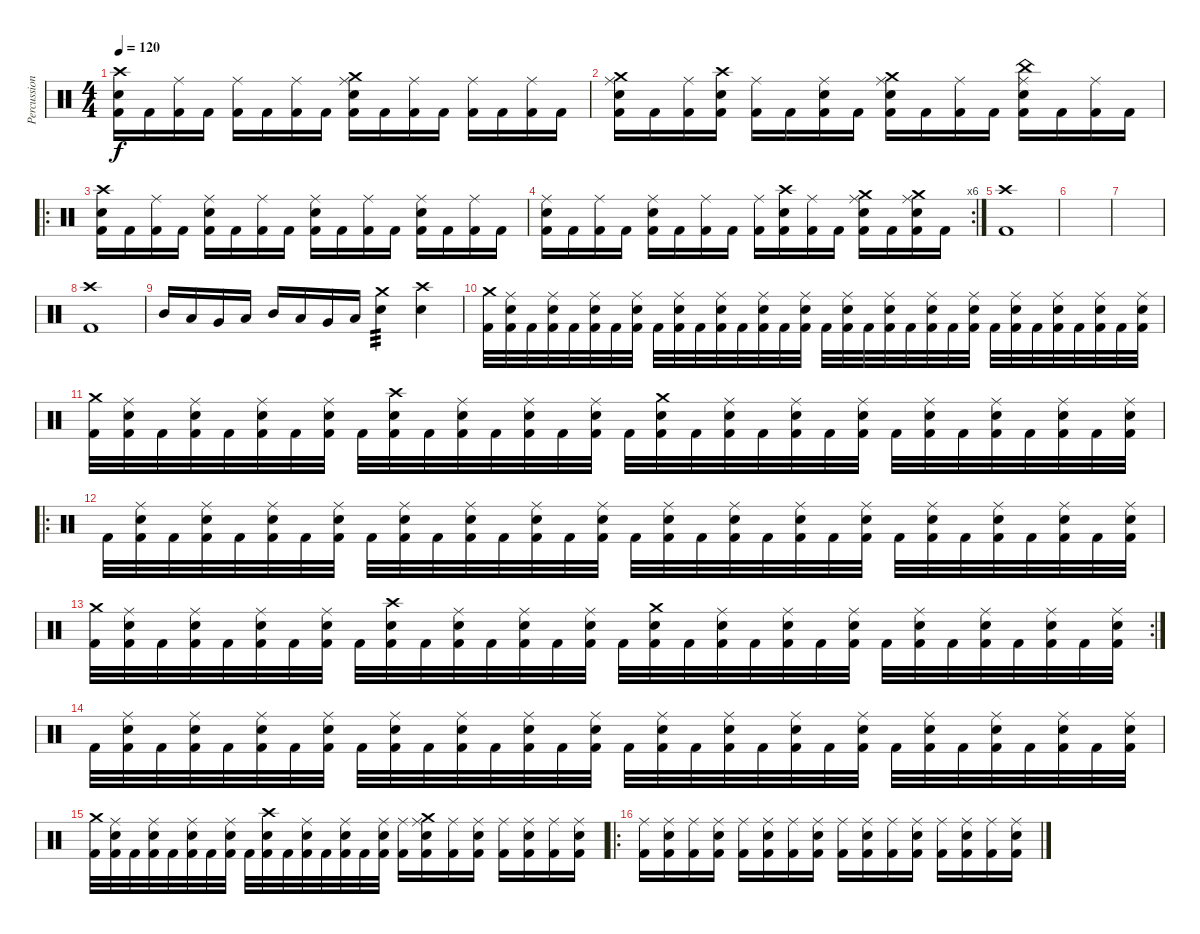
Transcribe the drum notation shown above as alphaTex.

\track ("Percussion" "Percussion") {instrument percussion}
\staff {score}
\articulation defaults
\ts (4 4)
\tempo 120
\clef neutral
\ks c
("Crash high (hit)" "Snare (hit) 2" "Kick (hit) 2").16{dy f} "Kick (hit) 2".16 ("Ride (middle)" "Kick (hit) 2").16 "Kick (hit) 2".16 ("Ride (middle)" "Kick (hit) 2").16 "Kick (hit) 2".16 ("Ride (middle)" "Kick (hit) 2").16 "Kick (hit) 2".16 ("Crash medium (hit)" "Ride (middle)" "Snare (hit) 2" "Kick (hit) 2").16 "Kick (hit) 2".16 ("Ride (middle)" "Kick (hit) 2").16 "Kick (hit) 2".16 ("Ride (middle)" "Kick (hit) 2").16 "Kick (hit) 2".16 ("Ride (middle)" "Kick (hit) 2").16 "Kick (hit) 2".16 |
("Crash medium (hit)" "Ride (middle)" "Snare (hit) 2" "Kick (hit) 2").16 "Kick (hit) 2".16 ("Ride (middle)" "Kick (hit) 2").16 ("Crash high (hit)" "Snare (hit) 2" "Kick (hit) 2").16 ("Ride (middle)" "Kick (hit) 2").16 "Kick (hit) 2".16 ("Ride (middle)" "Snare (hit) 2" "Kick (hit) 2").16 "Kick (hit) 2".16 ("Crash medium (hit)" "Ride (middle)" "Snare (hit) 2" "Kick (hit) 2").16 "Kick (hit) 2".16 ("Ride (middle)" "Kick (hit) 2").16 "Kick (hit) 2".16 ("China (hit)" "Ride (middle)" "Snare (hit) 2" "Kick (hit) 2").16 "Kick (hit) 2".16 ("Ride (middle)" "Kick (hit) 2").16 "Kick (hit) 2".16 |
\ro
("Crash high (hit)" "Snare (hit) 2" "Kick (hit) 2").16 "Kick (hit) 2".16 ("Ride (middle)" "Kick (hit) 2").16 "Kick (hit) 2".16 ("Ride (middle)" "Snare (hit) 2" "Kick (hit) 2").16 "Kick (hit) 2".16 ("Ride (middle)" "Kick (hit) 2").16 "Kick (hit) 2".16 ("Ride (middle)" "Snare (hit) 2" "Kick (hit) 2").16 "Kick (hit) 2".16 ("Ride (middle)" "Kick (hit) 2").16 "Kick (hit) 2".16 ("Ride (middle)" "Snare (hit) 2" "Kick (hit) 2").16 "Kick (hit) 2".16 ("Ride (middle)" "Kick (hit) 2").16 "Kick (hit) 2".16 |
\rc 6
("Ride (middle)" "Snare (hit) 2" "Kick (hit) 2").16 "Kick (hit) 2".16 ("Ride (middle)" "Kick (hit) 2").16 "Kick (hit) 2".16 ("Ride (middle)" "Snare (hit) 2" "Kick (hit) 2").16 "Kick (hit) 2".16 ("Ride (middle)" "Kick (hit) 2").16 "Kick (hit) 2".16 ("Ride (middle)" "Kick (hit) 2").16 ("Crash high (hit)" "Snare (hit) 2" "Kick (hit) 2").16 ("Ride (middle)" "Kick (hit) 2").16 "Kick (hit) 2".16 ("Crash medium (hit)" "Ride (middle)" "Snare (hit) 2" "Kick (hit) 2").16 "Kick (hit) 2".16 ("Crash medium (hit)" "Ride (middle)" "Snare (hit) 2" "Kick (hit) 2").16 "Kick (hit) 2".16 |
("Crash high (hit)" "Kick (hit) 2").1 |
|
|
("Crash high (hit)" "Kick (hit) 2").1 |
"Mid Tom (hit)".16 "Low Tom (hit)".16 "Very Low Tom (hit)".16 "Low Floor Tom (hit)".16 "Mid Tom (hit)".16 "Low Tom (hit)".16 "Very Low Tom (hit)".16 "Low Floor Tom (hit)".16 ("Crash medium (hit)" "Snare (hit) 2").4{tp 3} ("Crash high (hit)" "Snare (hit) 2").4 |
("Crash medium (hit)" "Kick (hit) 2").32 ("Ride (middle)" "Snare (hit) 2" "Kick (hit) 2").32 "Kick (hit) 2".32 ("Ride (middle)" "Snare (hit) 2" "Kick (hit) 2").32 "Kick (hit) 2".32 ("Ride (middle)" "Snare (hit) 2" "Kick (hit) 2").32 "Kick (hit) 2".32 ("Ride (middle)" "Snare (hit) 2" "Kick (hit) 2").32 "Kick (hit) 2".32 ("Ride (middle)" "Snare (hit) 2" "Kick (hit) 2").32 "Kick (hit) 2".32 ("Ride (middle)" "Snare (hit) 2" "Kick (hit) 2").32 "Kick (hit) 2".32 ("Ride (middle)" "Snare (hit) 2" "Kick (hit) 2").32 "Kick (hit) 2".32 ("Ride (middle)" "Snare (hit) 2" "Kick (hit) 2").32 "Kick (hit) 2".32 ("Ride (middle)" "Snare (hit) 2" "Kick (hit) 2").32 "Kick (hit) 2".32 ("Ride (middle)" "Snare (hit) 2" "Kick (hit) 2").32 "Kick (hit) 2".32 ("Ride (middle)" "Snare (hit) 2" "Kick (hit) 2").32 "Kick (hit) 2".32 ("Ride (middle)" "Snare (hit) 2" "Kick (hit) 2").32 "Kick (hit) 2".32 ("Ride (middle)" "Snare (hit) 2" "Kick (hit) 2").32 "Kick (hit) 2".32 ("Ride (middle)" "Snare (hit) 2" "Kick (hit) 2").32 "Kick (hit) 2".32 ("Ride (middle)" "Snare (hit) 2" "Kick (hit) 2").32 "Kick (hit) 2".32 ("Ride (middle)" "Snare (hit) 2" "Kick (hit) 2").32 |
("Crash medium (hit)" "Kick (hit) 2").32 ("Ride (middle)" "Snare (hit) 2" "Kick (hit) 2").32 "Kick (hit) 2".32 ("Ride (middle)" "Snare (hit) 2" "Kick (hit) 2").32 "Kick (hit) 2".32 ("Ride (middle)" "Snare (hit) 2" "Kick (hit) 2").32 "Kick (hit) 2".32 ("Ride (middle)" "Snare (hit) 2" "Kick (hit) 2").32 "Kick (hit) 2".32 ("Crash high (hit)" "Snare (hit) 2" "Kick (hit) 2").32 "Kick (hit) 2".32 ("Ride (middle)" "Snare (hit) 2" "Kick (hit) 2").32 "Kick (hit) 2".32 ("Ride (middle)" "Snare (hit) 2" "Kick (hit) 2").32 "Kick (hit) 2".32 ("Ride (middle)" "Snare (hit) 2" "Kick (hit) 2").32 "Kick (hit) 2".32 ("Crash medium (hit)" "Snare (hit) 2" "Kick (hit) 2").32 "Kick (hit) 2".32 ("Ride (middle)" "Snare (hit) 2" "Kick (hit) 2").32 "Kick (hit) 2".32 ("Ride (middle)" "Snare (hit) 2" "Kick (hit) 2").32 "Kick (hit) 2".32 ("Ride (middle)" "Snare (hit) 2" "Kick (hit) 2").32 "Kick (hit) 2".32 ("Ride (middle)" "Snare (hit) 2" "Kick (hit) 2").32 "Kick (hit) 2".32 ("Ride (middle)" "Snare (hit) 2" "Kick (hit) 2").32 "Kick (hit) 2".32 ("Ride (middle)" "Snare (hit) 2" "Kick (hit) 2").32 "Kick (hit) 2".32 ("Ride (middle)" "Snare (hit) 2" "Kick (hit) 2").32 |
\ro "Kick (hit) 2".32
("Ride (middle)" "Snare (hit) 2" "Kick (hit) 2").32 "Kick (hit) 2".32 ("Ride (middle)" "Snare (hit) 2" "Kick (hit) 2").32 "Kick (hit) 2".32 ("Ride (middle)" "Snare (hit) 2" "Kick (hit) 2").32 "Kick (hit) 2".32 ("Ride (middle)" "Snare (hit) 2" "Kick (hit) 2").32 "Kick (hit) 2".32 ("Ride (middle)" "Snare (hit) 2" "Kick (hit) 2").32 "Kick (hit) 2".32 ("Ride (middle)" "Snare (hit) 2" "Kick (hit) 2").32 "Kick (hit) 2".32 ("Ride (middle)" "Snare (hit) 2" "Kick (hit) 2").32 "Kick (hit) 2".32 ("Ride (middle)" "Snare (hit) 2" "Kick (hit) 2").32 "Kick (hit) 2".32 ("Ride (middle)" "Snare (hit) 2" "Kick (hit) 2").32 "Kick (hit) 2".32 ("Ride (middle)" "Snare (hit) 2" "Kick (hit) 2").32 "Kick (hit) 2".32 ("Ride (middle)" "Snare (hit) 2" "Kick (hit) 2").32 "Kick (hit) 2".32 ("Ride (middle)" "Snare (hit) 2" "Kick (hit) 2").32 "Kick (hit) 2".32 ("Ride (middle)" "Snare (hit) 2" "Kick (hit) 2").32 "Kick (hit) 2".32 ("Ride (middle)" "Snare (hit) 2" "Kick (hit) 2").32 "Kick (hit) 2".32 ("Ride (middle)" "Snare (hit) 2" "Kick (hit) 2").32 "Kick (hit) 2".32 ("Ride (middle)" "Snare (hit) 2" "Kick (hit) 2").32 |
\rc 2
("Crash medium (hit)" "Kick (hit) 2").32 ("Ride (middle)" "Snare (hit) 2" "Kick (hit) 2").32 "Kick (hit) 2".32 ("Ride (middle)" "Snare (hit) 2" "Kick (hit) 2").32 "Kick (hit) 2".32 ("Ride (middle)" "Snare (hit) 2" "Kick (hit) 2").32 "Kick (hit) 2".32 ("Ride (middle)" "Snare (hit) 2" "Kick (hit) 2").32 "Kick (hit) 2".32 ("Crash high (hit)" "Snare (hit) 2" "Kick (hit) 2").32 "Kick (hit) 2".32 ("Ride (middle)" "Snare (hit) 2" "Kick (hit) 2").32 "Kick (hit) 2".32 ("Ride (middle)" "Snare (hit) 2" "Kick (hit) 2").32 "Kick (hit) 2".32 ("Ride (middle)" "Snare (hit) 2" "Kick (hit) 2").32 "Kick (hit) 2".32 ("Crash medium (hit)" "Snare (hit) 2" "Kick (hit) 2").32 "Kick (hit) 2".32 ("Ride (middle)" "Snare (hit) 2" "Kick (hit) 2").32 "Kick (hit) 2".32 ("Ride (middle)" "Snare (hit) 2" "Kick (hit) 2").32 "Kick (hit) 2".32 ("Ride (middle)" "Snare (hit) 2" "Kick (hit) 2").32 "Kick (hit) 2".32 ("Ride (middle)" "Snare (hit) 2" "Kick (hit) 2").32 "Kick (hit) 2".32 ("Ride (middle)" "Snare (hit) 2" "Kick (hit) 2").32 "Kick (hit) 2".32 ("Ride (middle)" "Snare (hit) 2" "Kick (hit) 2").32 "Kick (hit) 2".32 ("Ride (middle)" "Snare (hit) 2" "Kick (hit) 2").32 |
"Kick (hit) 2".32 ("Ride (middle)" "Snare (hit) 2" "Kick (hit) 2").32 "Kick (hit) 2".32 ("Ride (middle)" "Snare (hit) 2" "Kick (hit) 2").32 "Kick (hit) 2".32 ("Ride (middle)" "Snare (hit) 2" "Kick (hit) 2").32 "Kick (hit) 2".32 ("Ride (middle)" "Snare (hit) 2" "Kick (hit) 2").32 "Kick (hit) 2".32 ("Ride (middle)" "Snare (hit) 2" "Kick (hit) 2").32 "Kick (hit) 2".32 ("Ride (middle)" "Snare (hit) 2" "Kick (hit) 2").32 "Kick (hit) 2".32 ("Ride (middle)" "Snare (hit) 2" "Kick (hit) 2").32 "Kick (hit) 2".32 ("Ride (middle)" "Snare (hit) 2" "Kick (hit) 2").32 "Kick (hit) 2".32 ("Ride (middle)" "Snare (hit) 2" "Kick (hit) 2").32 "Kick (hit) 2".32 ("Ride (middle)" "Snare (hit) 2" "Kick (hit) 2").32 "Kick (hit) 2".32 ("Ride (middle)" "Snare (hit) 2" "Kick (hit) 2").32 "Kick (hit) 2".32 ("Ride (middle)" "Snare (hit) 2" "Kick (hit) 2").32 "Kick (hit) 2".32 ("Ride (middle)" "Snare (hit) 2" "Kick (hit) 2").32 "Kick (hit) 2".32 ("Ride (middle)" "Snare (hit) 2" "Kick (hit) 2").32 "Kick (hit) 2".32 ("Ride (middle)" "Snare (hit) 2" "Kick (hit) 2").32 "Kick (hit) 2".32 ("Ride (middle)" "Snare (hit) 2" "Kick (hit) 2").32 |
("Crash medium (hit)" "Kick (hit) 2").32 ("Ride (middle)" "Snare (hit) 2" "Kick (hit) 2").32 "Kick (hit) 2".32 ("Ride (middle)" "Snare (hit) 2" "Kick (hit) 2").32 "Kick (hit) 2".32 ("Ride (middle)" "Snare (hit) 2" "Kick (hit) 2").32 "Kick (hit) 2".32 ("Ride (middle)" "Snare (hit) 2" "Kick (hit) 2").32 "Kick (hit) 2".32 ("Crash high (hit)" "Snare (hit) 2" "Kick (hit) 2").32 "Kick (hit) 2".32 ("Ride (middle)" "Snare (hit) 2" "Kick (hit) 2").32 "Kick (hit) 2".32 ("Ride (middle)" "Snare (hit) 2" "Kick (hit) 2").32 "Kick (hit) 2".32 ("Ride (middle)" "Snare (hit) 2" "Kick (hit) 2").32 ("Ride (middle)" "Kick (hit) 2").16 ("Crash medium (hit)" "Ride (middle)" "Snare (hit) 2" "Kick (hit) 2").16 ("Ride (middle)" "Kick (hit) 2").16 ("Ride (middle)" "Snare (hit) 2" "Kick (hit) 2").16 ("Ride (middle)" "Kick (hit) 2").16 ("Ride (middle)" "Snare (hit) 2" "Kick (hit) 2").16 ("Ride (middle)" "Kick (hit) 2").16 ("Ride (middle)" "Snare (hit) 2" "Kick (hit) 2").16 |
\ro
("Ride (middle)" "Kick (hit) 2").16 ("Ride (middle)" "Snare (hit) 2" "Kick (hit) 2").16 ("Ride (middle)" "Kick (hit) 2").16 ("Ride (middle)" "Snare (hit) 2" "Kick (hit) 2").16 ("Ride (middle)" "Kick (hit) 2").16 ("Ride (middle)" "Snare (hit) 2" "Kick (hit) 2").16 ("Ride (middle)" "Kick (hit) 2").16 ("Ride (middle)" "Snare (hit) 2" "Kick (hit) 2").16 ("Ride (middle)" "Kick (hit) 2").16 ("Ride (middle)" "Snare (hit) 2" "Kick (hit) 2").16 ("Ride (middle)" "Kick (hit) 2").16 ("Ride (middle)" "Snare (hit) 2" "Kick (hit) 2").16 ("Ride (middle)" "Kick (hit) 2").16 ("Ride (middle)" "Snare (hit) 2" "Kick (hit) 2").16 ("Ride (middle)" "Kick (hit) 2").16 ("Ride (middle)" "Snare (hit) 2" "Kick (hit) 2").16
